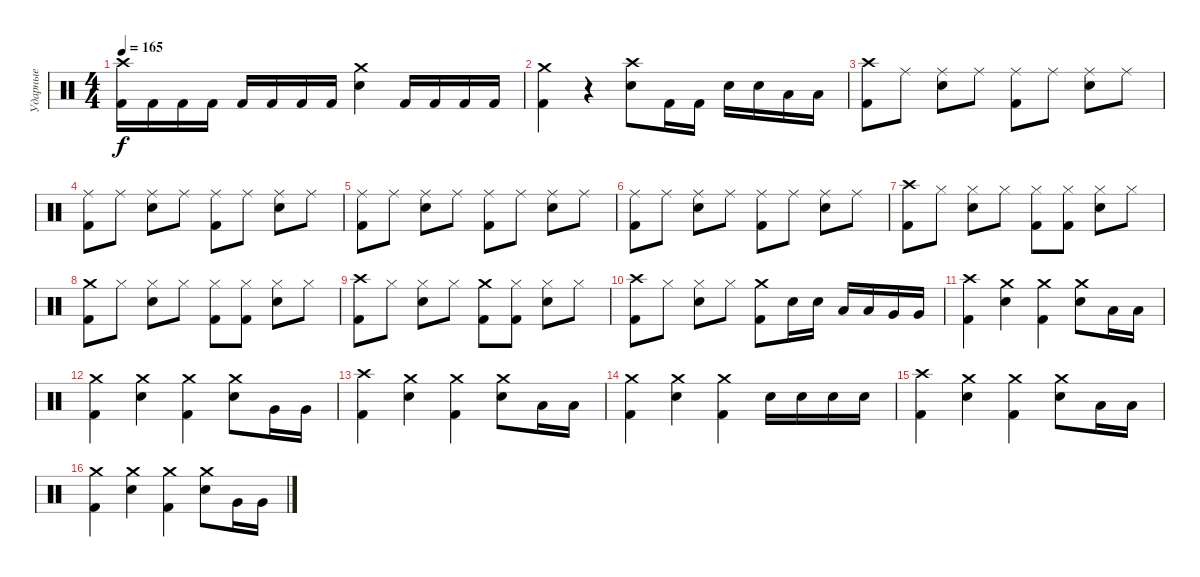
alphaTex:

\track ("Ударные" "Ударные") {instrument percussion}
\staff {score}
\articulation defaults
\ts (4 4)
\tempo 165
\clef neutral
\ks c
("Kick (hit) 2" "Crash high (hit)").16{dy f} "Kick (hit) 2".16 "Kick (hit) 2".16 "Kick (hit) 2".16 "Kick (hit) 2".16 "Kick (hit) 2".16 "Kick (hit) 2".16 "Kick (hit) 2".16 ("Snare (hit) 2" "Crash medium (hit)").4 "Kick (hit) 2".16 "Kick (hit) 2".16 "Kick (hit) 2".16 "Kick (hit) 2".16 |
("Kick (hit) 2" "Crash medium (hit)").4 r.4 ("Snare (hit) 2" "Crash high (hit)").8 "Kick (hit) 2".16 "Kick (hit) 2".16 "Snare (hit) 2".16 "Snare (hit) 2".16 "Low Tom (hit)".16 "Low Tom (hit)".16 |
("Kick (hit) 2" "Crash high (hit)").8 "Ride (middle)".8 ("Ride (middle)" "Snare (hit) 2").8 "Ride (middle)".8 ("Ride (middle)" "Kick (hit) 2").8 "Ride (middle)".8 ("Ride (middle)" "Snare (hit) 2").8 "Ride (middle)".8 |
("Kick (hit) 2" "Ride (middle)").8 "Ride (middle)".8 ("Ride (middle)" "Snare (hit) 2").8 "Ride (middle)".8 ("Ride (middle)" "Kick (hit) 2").8 "Ride (middle)".8 ("Ride (middle)" "Snare (hit) 2").8 "Ride (middle)".8 |
("Kick (hit) 2" "Ride (middle)").8 "Ride (middle)".8 ("Ride (middle)" "Snare (hit) 2").8 "Ride (middle)".8 ("Ride (middle)" "Kick (hit) 2").8 "Ride (middle)".8 ("Ride (middle)" "Snare (hit) 2").8 "Ride (middle)".8 |
("Kick (hit) 2" "Ride (middle)").8 "Ride (middle)".8 ("Ride (middle)" "Snare (hit) 2").8 "Ride (middle)".8 ("Ride (middle)" "Kick (hit) 2").8 "Ride (middle)".8 ("Ride (middle)" "Snare (hit) 2").8 "Ride (middle)".8 |
("Crash high (hit)" "Kick (hit) 2").8 "Hi-Hat (closed)".8 ("Hi-Hat (closed)" "Snare (hit) 2").8 "Hi-Hat (closed)".8 ("Hi-Hat (closed)" "Kick (hit) 2").8 ("Hi-Hat (closed)" "Kick (hit) 2").8 ("Hi-Hat (closed)" "Snare (hit) 2").8 "Hi-Hat (closed)".8 |
("Crash medium (hit)" "Kick (hit) 2").8 "Hi-Hat (closed)".8 ("Hi-Hat (closed)" "Snare (hit) 2").8 "Hi-Hat (closed)".8 ("Hi-Hat (closed)" "Kick (hit) 2").8 ("Hi-Hat (closed)" "Kick (hit) 2").8 ("Hi-Hat (closed)" "Snare (hit) 2").8 "Hi-Hat (closed)".8 |
("Crash high (hit)" "Kick (hit) 2").8 "Hi-Hat (closed)".8 ("Hi-Hat (closed)" "Snare (hit) 2").8 "Hi-Hat (closed)".8 ("Crash medium (hit)" "Kick (hit) 2").8 ("Hi-Hat (closed)" "Kick (hit) 2").8 ("Hi-Hat (closed)" "Snare (hit) 2").8 "Hi-Hat (closed)".8 |
("Crash high (hit)" "Kick (hit) 2").8 "Hi-Hat (closed)".8 ("Hi-Hat (closed)" "Snare (hit) 2").8 "Hi-Hat (closed)".8 ("Crash medium (hit)" "Kick (hit) 2").8 "Snare (hit) 2".16 "Snare (hit) 2".16 "Low Tom (hit)".16 "Low Tom (hit)".16 "Very Low Tom (hit)".16 "Very Low Tom (hit)".16 |
("Crash high (hit)" "Kick (hit) 2").4 ("Crash medium (hit)" "Snare (hit) 2").4 ("Kick (hit) 2" "Crash medium (hit)").4 ("Snare (hit) 2" "Crash medium (hit)").8 "Low Tom (hit)".16 "Low Tom (hit)".16 |
("Crash medium (hit)" "Kick (hit) 2").4 ("Crash medium (hit)" "Snare (hit) 2").4 ("Kick (hit) 2" "Crash medium (hit)").4 ("Snare (hit) 2" "Crash medium (hit)").8 "Very Low Tom (hit)".16 "Very Low Tom (hit)".16 |
("Crash high (hit)" "Kick (hit) 2").4 ("Crash medium (hit)" "Snare (hit) 2").4 ("Kick (hit) 2" "Crash medium (hit)").4 ("Snare (hit) 2" "Crash medium (hit)").8 "Low Tom (hit)".16 "Low Tom (hit)".16 |
("Crash medium (hit)" "Kick (hit) 2").4 ("Crash medium (hit)" "Snare (hit) 2").4 ("Kick (hit) 2" "Crash medium (hit)").4 "Snare (hit) 2".16 "Snare (hit) 2".16 "Snare (hit) 2".16 "Snare (hit) 2".16 |
("Crash high (hit)" "Kick (hit) 2").4 ("Crash medium (hit)" "Snare (hit) 2").4 ("Kick (hit) 2" "Crash medium (hit)").4 ("Snare (hit) 2" "Crash medium (hit)").8 "Low Tom (hit)".16 "Low Tom (hit)".16 |
("Crash medium (hit)" "Kick (hit) 2").4 ("Crash medium (hit)" "Snare (hit) 2").4 ("Kick (hit) 2" "Crash medium (hit)").4 ("Snare (hit) 2" "Crash medium (hit)").8 "Very Low Tom (hit)".16 "Very Low Tom (hit)".16
